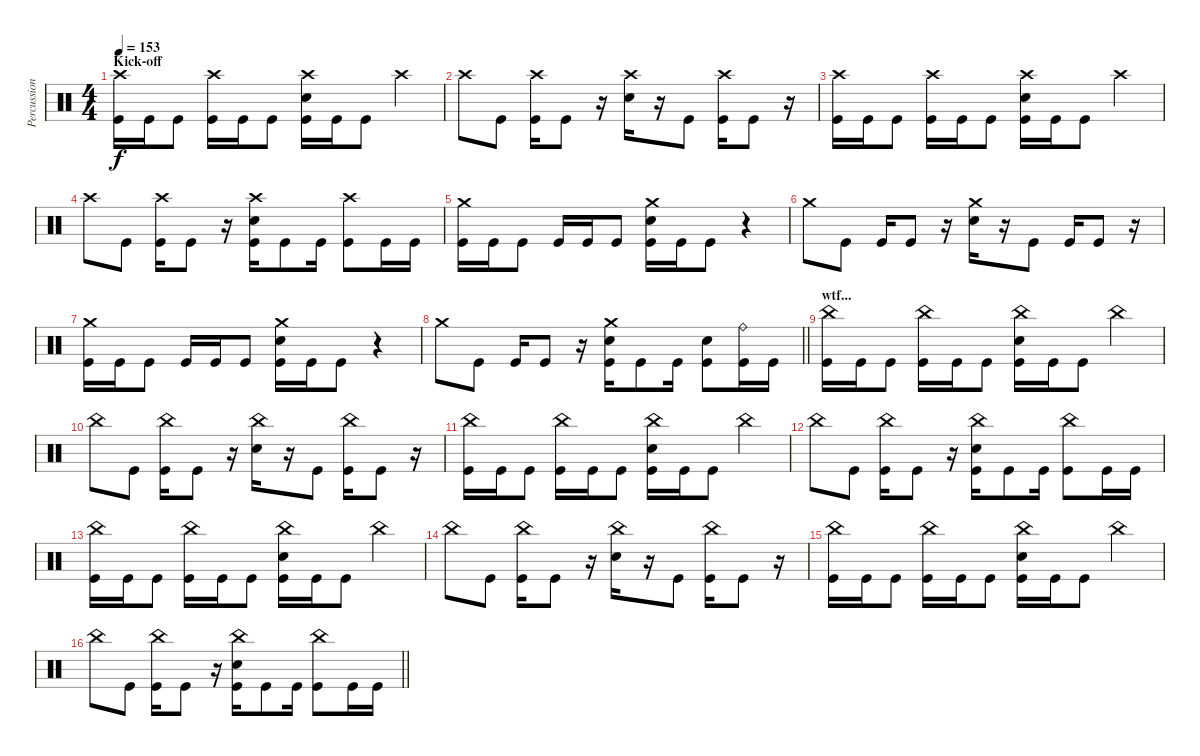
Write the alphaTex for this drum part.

\track ("Percussions" "Percussion") {instrument percussion}
\staff {score}
\articulation defaults
\ts (4 4)
\section ("" "Kick-off")
\tempo 153
\clef neutral
\ks c
("Crash high (hit)" "Kick (hit)").16{dy f} "Kick (hit)".16 "Kick (hit)".8 ("Crash high (hit)" "Kick (hit)").16 "Kick (hit)".16 "Kick (hit)".8 ("Crash high (hit)" "Electric Snare (hit)" "Kick (hit)").16 "Kick (hit)".16 "Kick (hit)".8 "Crash high (hit)".4 |
"Crash high (hit)".8 "Kick (hit)".8 ("Crash high (hit)" "Kick (hit)").16 "Kick (hit)".8 r.16 ("Crash high (hit)" "Electric Snare (hit)").16 r.16 "Kick (hit)".8 ("Crash high (hit)" "Kick (hit)").16 "Kick (hit)".8 r.16 |
("Crash high (hit)" "Kick (hit)").16 "Kick (hit)".16 "Kick (hit)".8 ("Crash high (hit)" "Kick (hit)").16 "Kick (hit)".16 "Kick (hit)".8 ("Crash high (hit)" "Electric Snare (hit)" "Kick (hit)").16 "Kick (hit)".16 "Kick (hit)".8 "Crash high (hit)".4 |
"Crash high (hit)".8 "Kick (hit)".8 ("Crash high (hit)" "Kick (hit)").16 "Kick (hit)".8 r.16 ("Crash high (hit)" "Electric Snare (hit)" "Kick (hit)").16 "Kick (hit)".8 "Kick (hit)".16 ("Crash high (hit)" "Kick (hit)").8 "Kick (hit)".16 "Kick (hit)".16 |
("Crash medium (hit)" "Kick (hit)").16 "Kick (hit)".16 "Kick (hit)".8 "Kick (hit)".16 "Kick (hit)".16 "Kick (hit)".8 ("Crash medium (hit)" "Electric Snare (hit)" "Kick (hit)").16 "Kick (hit)".16 "Kick (hit)".8 r.4 |
"Crash medium (hit)".8 "Kick (hit)".8 "Kick (hit)".16 "Kick (hit)".8 r.16 ("Crash medium (hit)" "Electric Snare (hit)").16 r.16 "Kick (hit)".8 "Kick (hit)".16 "Kick (hit)".8 r.16 |
("Crash medium (hit)" "Kick (hit)").16 "Kick (hit)".16 "Kick (hit)".8 "Kick (hit)".16 "Kick (hit)".16 "Kick (hit)".8 ("Crash medium (hit)" "Electric Snare (hit)" "Kick (hit)").16 "Kick (hit)".16 "Kick (hit)".8 r.4 |
\barLineRight lightlight "Crash medium (hit)".8 "Kick (hit)".8 "Kick (hit)".16 "Kick (hit)".8
r.16 ("Crash medium (hit)" "Electric Snare (hit)" "Kick (hit)").16 "Kick (hit)".8 "Kick (hit)".16 ("Electric Snare (hit)" "Kick (hit)").8 ("Ride (bell)" "Kick (hit)").16 "Kick (hit)".16 |
\section ("" "wtf...")
("China (hit)" "Kick (hit)").16 "Kick (hit)".16 "Kick (hit)".8 ("China (hit)" "Kick (hit)").16 "Kick (hit)".16 "Kick (hit)".8 ("China (hit)" "Electric Snare (hit)" "Kick (hit)").16 "Kick (hit)".16 "Kick (hit)".8 "China (hit)".4 |
"China (hit)".8 "Kick (hit)".8 ("China (hit)" "Kick (hit)").16 "Kick (hit)".8 r.16 ("China (hit)" "Electric Snare (hit)").16 r.16 "Kick (hit)".8 ("China (hit)" "Kick (hit)").16 "Kick (hit)".8 r.16 |
("China (hit)" "Kick (hit)").16 "Kick (hit)".16 "Kick (hit)".8 ("China (hit)" "Kick (hit)").16 "Kick (hit)".16 "Kick (hit)".8 ("China (hit)" "Electric Snare (hit)" "Kick (hit)").16 "Kick (hit)".16 "Kick (hit)".8 "China (hit)".4 |
"China (hit)".8 "Kick (hit)".8 ("China (hit)" "Kick (hit)").16 "Kick (hit)".8 r.16 ("China (hit)" "Electric Snare (hit)" "Kick (hit)").16 "Kick (hit)".8 "Kick (hit)".16 ("China (hit)" "Kick (hit)").8 "Kick (hit)".16 "Kick (hit)".16 |
("China (hit)" "Kick (hit)").16 "Kick (hit)".16 "Kick (hit)".8 ("China (hit)" "Kick (hit)").16 "Kick (hit)".16 "Kick (hit)".8 ("China (hit)" "Electric Snare (hit)" "Kick (hit)").16 "Kick (hit)".16 "Kick (hit)".8 "China (hit)".4 |
"China (hit)".8 "Kick (hit)".8 ("China (hit)" "Kick (hit)").16 "Kick (hit)".8 r.16 ("China (hit)" "Electric Snare (hit)").16 r.16 "Kick (hit)".8 ("China (hit)" "Kick (hit)").16 "Kick (hit)".8 r.16 |
("China (hit)" "Kick (hit)").16 "Kick (hit)".16 "Kick (hit)".8 ("China (hit)" "Kick (hit)").16 "Kick (hit)".16 "Kick (hit)".8 ("China (hit)" "Electric Snare (hit)" "Kick (hit)").16 "Kick (hit)".16 "Kick (hit)".8 "China (hit)".4 |
\barLineRight lightlight "China (hit)".8 "Kick (hit)".8
("China (hit)" "Kick (hit)").16 "Kick (hit)".8 r.16 ("China (hit)" "Electric Snare (hit)" "Kick (hit)").16 "Kick (hit)".8 "Kick (hit)".16 ("China (hit)" "Kick (hit)").8 "Kick (hit)".16 "Kick (hit)".16
